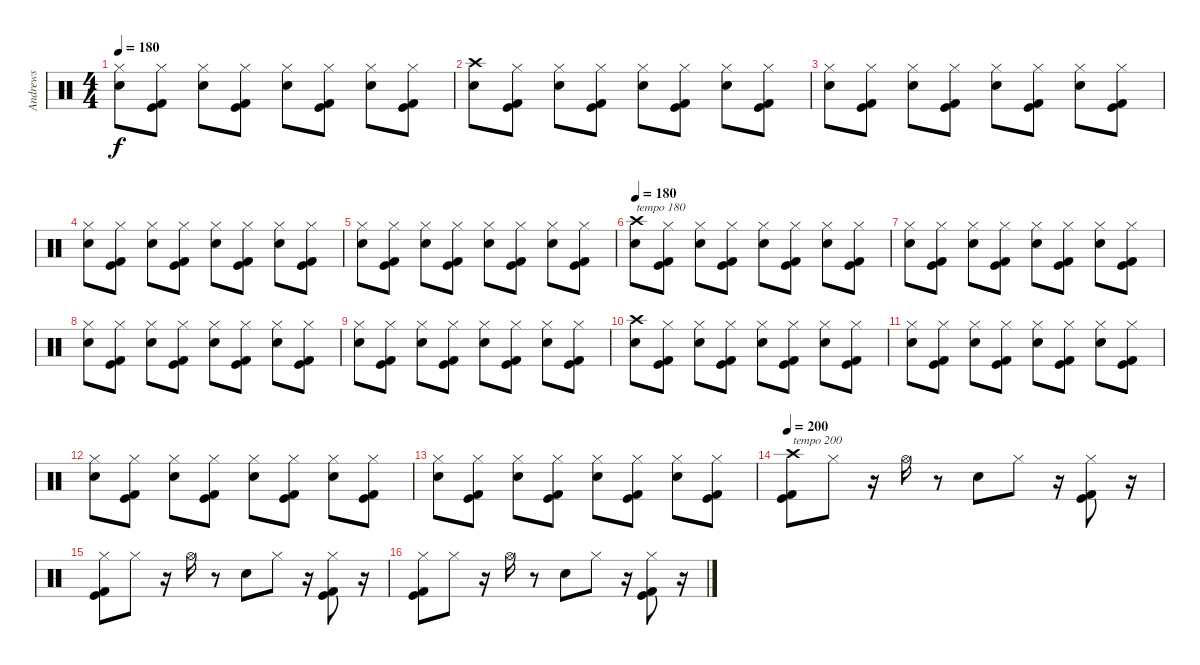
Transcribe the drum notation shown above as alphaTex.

\track ("Andrews" "Andrews") {instrument percussion}
\staff {score}
\articulation defaults
\ts (4 4)
\tempo 180
\clef neutral
\ks c
("Hi-Hat (closed)" "Electric Snare (hit)").8{dy f} ("Hi-Hat (closed)" "Kick (hit) 2" "Kick (hit)").8 ("Hi-Hat (closed)" "Electric Snare (hit)").8 ("Hi-Hat (closed)" "Kick (hit) 2" "Kick (hit)").8 ("Hi-Hat (closed)" "Electric Snare (hit)").8 ("Hi-Hat (closed)" "Kick (hit) 2" "Kick (hit)").8 ("Hi-Hat (closed)" "Electric Snare (hit)").8 ("Hi-Hat (closed)" "Kick (hit) 2" "Kick (hit)").8 |
("Crash high (hit)" "Electric Snare (hit)").8 ("Hi-Hat (closed)" "Kick (hit) 2" "Kick (hit)").8 ("Hi-Hat (closed)" "Electric Snare (hit)").8 ("Hi-Hat (closed)" "Kick (hit) 2" "Kick (hit)").8 ("Hi-Hat (closed)" "Electric Snare (hit)").8 ("Hi-Hat (closed)" "Kick (hit) 2" "Kick (hit)").8 ("Hi-Hat (closed)" "Electric Snare (hit)").8 ("Hi-Hat (closed)" "Kick (hit) 2" "Kick (hit)").8 |
("Hi-Hat (closed)" "Electric Snare (hit)").8 ("Hi-Hat (closed)" "Kick (hit) 2" "Kick (hit)").8 ("Hi-Hat (closed)" "Electric Snare (hit)").8 ("Hi-Hat (closed)" "Kick (hit) 2" "Kick (hit)").8 ("Hi-Hat (closed)" "Electric Snare (hit)").8 ("Hi-Hat (closed)" "Kick (hit) 2" "Kick (hit)").8 ("Hi-Hat (closed)" "Electric Snare (hit)").8 ("Hi-Hat (closed)" "Kick (hit) 2" "Kick (hit)").8 |
("Hi-Hat (closed)" "Electric Snare (hit)").8 ("Hi-Hat (closed)" "Kick (hit) 2" "Kick (hit)").8 ("Hi-Hat (closed)" "Electric Snare (hit)").8 ("Hi-Hat (closed)" "Kick (hit) 2" "Kick (hit)").8 ("Hi-Hat (closed)" "Electric Snare (hit)").8 ("Hi-Hat (closed)" "Kick (hit) 2" "Kick (hit)").8 ("Hi-Hat (closed)" "Electric Snare (hit)").8 ("Hi-Hat (closed)" "Kick (hit) 2" "Kick (hit)").8 |
("Hi-Hat (closed)" "Electric Snare (hit)").8 ("Hi-Hat (closed)" "Kick (hit) 2" "Kick (hit)").8 ("Hi-Hat (closed)" "Electric Snare (hit)").8 ("Hi-Hat (closed)" "Kick (hit) 2" "Kick (hit)").8 ("Hi-Hat (closed)" "Electric Snare (hit)").8 ("Hi-Hat (closed)" "Kick (hit) 2" "Kick (hit)").8 ("Hi-Hat (closed)" "Electric Snare (hit)").8 ("Hi-Hat (closed)" "Kick (hit) 2" "Kick (hit)").8 |
\tempo 180
("Crash high (hit)" "Electric Snare (hit)").8{txt "tempo 180"} ("Hi-Hat (closed)" "Kick (hit) 2" "Kick (hit)").8 ("Hi-Hat (closed)" "Electric Snare (hit)").8 ("Hi-Hat (closed)" "Kick (hit) 2" "Kick (hit)").8 ("Hi-Hat (closed)" "Electric Snare (hit)").8 ("Hi-Hat (closed)" "Kick (hit) 2" "Kick (hit)").8 ("Hi-Hat (closed)" "Electric Snare (hit)").8 ("Hi-Hat (closed)" "Kick (hit) 2" "Kick (hit)").8 |
("Hi-Hat (closed)" "Electric Snare (hit)").8 ("Hi-Hat (closed)" "Kick (hit) 2" "Kick (hit)").8 ("Hi-Hat (closed)" "Electric Snare (hit)").8 ("Hi-Hat (closed)" "Kick (hit) 2" "Kick (hit)").8 ("Hi-Hat (closed)" "Electric Snare (hit)").8 ("Hi-Hat (closed)" "Kick (hit) 2" "Kick (hit)").8 ("Hi-Hat (closed)" "Electric Snare (hit)").8 ("Hi-Hat (closed)" "Kick (hit) 2" "Kick (hit)").8 |
("Hi-Hat (closed)" "Electric Snare (hit)").8 ("Hi-Hat (closed)" "Kick (hit) 2" "Kick (hit)").8 ("Hi-Hat (closed)" "Electric Snare (hit)").8 ("Hi-Hat (closed)" "Kick (hit) 2" "Kick (hit)").8 ("Hi-Hat (closed)" "Electric Snare (hit)").8 ("Hi-Hat (closed)" "Kick (hit) 2" "Kick (hit)").8 ("Hi-Hat (closed)" "Electric Snare (hit)").8 ("Hi-Hat (closed)" "Kick (hit) 2" "Kick (hit)").8 |
("Hi-Hat (closed)" "Electric Snare (hit)").8 ("Hi-Hat (closed)" "Kick (hit) 2" "Kick (hit)").8 ("Hi-Hat (closed)" "Electric Snare (hit)").8 ("Hi-Hat (closed)" "Kick (hit) 2" "Kick (hit)").8 ("Hi-Hat (closed)" "Electric Snare (hit)").8 ("Hi-Hat (closed)" "Kick (hit) 2" "Kick (hit)").8 ("Hi-Hat (closed)" "Electric Snare (hit)").8 ("Hi-Hat (closed)" "Kick (hit) 2" "Kick (hit)").8 |
("Crash high (hit)" "Electric Snare (hit)").8 ("Hi-Hat (closed)" "Kick (hit) 2" "Kick (hit)").8 ("Hi-Hat (closed)" "Electric Snare (hit)").8 ("Hi-Hat (closed)" "Kick (hit) 2" "Kick (hit)").8 ("Hi-Hat (closed)" "Electric Snare (hit)").8 ("Hi-Hat (closed)" "Kick (hit) 2" "Kick (hit)").8 ("Hi-Hat (closed)" "Electric Snare (hit)").8 ("Hi-Hat (closed)" "Kick (hit) 2" "Kick (hit)").8 |
("Hi-Hat (closed)" "Electric Snare (hit)").8 ("Hi-Hat (closed)" "Kick (hit) 2" "Kick (hit)").8 ("Hi-Hat (closed)" "Electric Snare (hit)").8 ("Hi-Hat (closed)" "Kick (hit) 2" "Kick (hit)").8 ("Hi-Hat (closed)" "Electric Snare (hit)").8 ("Hi-Hat (closed)" "Kick (hit) 2" "Kick (hit)").8 ("Hi-Hat (closed)" "Electric Snare (hit)").8 ("Hi-Hat (closed)" "Kick (hit) 2" "Kick (hit)").8 |
("Hi-Hat (closed)" "Electric Snare (hit)").8 ("Hi-Hat (closed)" "Kick (hit) 2" "Kick (hit)").8 ("Hi-Hat (closed)" "Electric Snare (hit)").8 ("Hi-Hat (closed)" "Kick (hit) 2" "Kick (hit)").8 ("Hi-Hat (closed)" "Electric Snare (hit)").8 ("Hi-Hat (closed)" "Kick (hit) 2" "Kick (hit)").8 ("Hi-Hat (closed)" "Electric Snare (hit)").8 ("Hi-Hat (closed)" "Kick (hit) 2" "Kick (hit)").8 |
("Hi-Hat (closed)" "Electric Snare (hit)").8 ("Hi-Hat (closed)" "Kick (hit) 2" "Kick (hit)").8 ("Hi-Hat (closed)" "Electric Snare (hit)").8 ("Hi-Hat (closed)" "Kick (hit) 2" "Kick (hit)").8 ("Hi-Hat (closed)" "Electric Snare (hit)").8 ("Hi-Hat (closed)" "Kick (hit) 2" "Kick (hit)").8 ("Hi-Hat (closed)" "Electric Snare (hit)").8 ("Hi-Hat (closed)" "Kick (hit) 2" "Kick (hit)").8 |
\tempo 200
("Crash high (hit)" "Kick (hit) 2" "Kick (hit)").8{txt "tempo 200"} "Hi-Hat (closed)".8 r.16 "Hi-Hat (open)".16 r.8 "Electric Snare (hit)".8 "Hi-Hat (closed)".8 r.16 ("Hi-Hat (closed)" "Kick (hit) 2" "Kick (hit)").8 r.16 |
("Hi-Hat (closed)" "Kick (hit) 2" "Kick (hit)").8 "Hi-Hat (closed)".8 r.16 "Hi-Hat (open)".16 r.8 "Electric Snare (hit)".8 "Hi-Hat (closed)".8 r.16 ("Hi-Hat (closed)" "Kick (hit) 2" "Kick (hit)").8 r.16 |
("Hi-Hat (closed)" "Kick (hit) 2" "Kick (hit)").8 "Hi-Hat (closed)".8 r.16 "Hi-Hat (open)".16 r.8 "Electric Snare (hit)".8 "Hi-Hat (closed)".8 r.16 ("Hi-Hat (closed)" "Kick (hit) 2" "Kick (hit)").8 r.16
